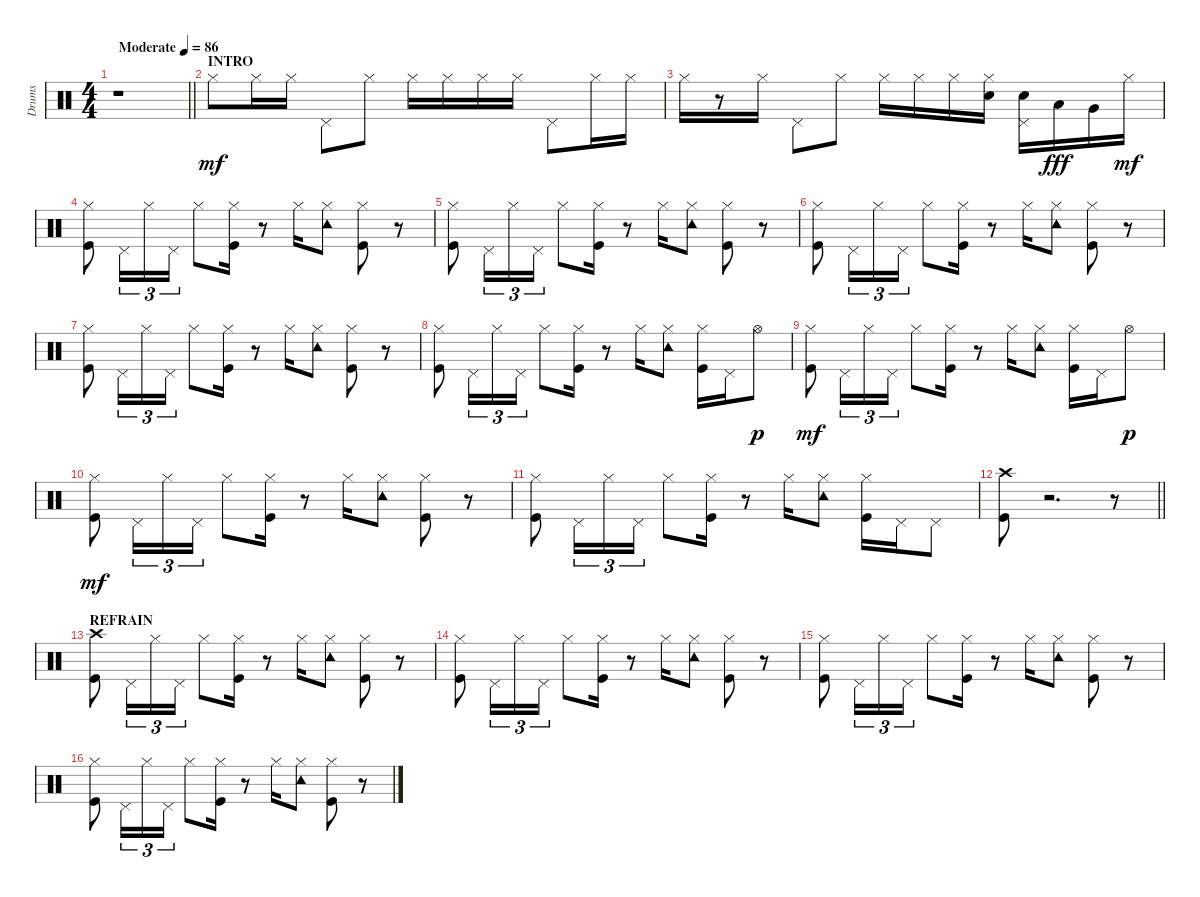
\track ("Drums" "Drums") {instrument percussion}
\staff {score}
\articulation defaults
\ts (4 4)
\tempo (86 "Moderate")
\clef neutral
\barLineRight lightlight
\ks c
r.1{dy mf} |
\section ("" "INTRO")
"Hi-Hat (closed)".8 "Hi-Hat (closed)".16 "Hi-Hat (closed)".16 "Pedal Hi-Hat (hit)".8 "Hi-Hat (closed)".8 "Hi-Hat (closed)".16 "Hi-Hat (closed)".16 "Hi-Hat (closed)".16 "Hi-Hat (closed)".16 "Pedal Hi-Hat (hit)".8 "Hi-Hat (closed)".16 "Hi-Hat (closed)".16 |
"Hi-Hat (closed)".16 r.8 "Hi-Hat (closed)".16 "Pedal Hi-Hat (hit)".8 "Hi-Hat (closed)".8 "Hi-Hat (closed)".16 "Hi-Hat (closed)".16 "Hi-Hat (closed)".16 ("Electric Snare (hit)" "Hi-Hat (closed)").16 ("Electric Snare (hit)" "Pedal Hi-Hat (hit)").16 "Low Tom (hit)".16{dy fff} "Very Low Tom (hit)".16 "Hi-Hat (closed)".16{dy mf} |
("Kick (hit)" "Hi-Hat (closed)").8 "Pedal Hi-Hat (hit)".16{tu (3 2)} "Hi-Hat (closed)".16{tu (3 2)} "Pedal Hi-Hat (hit)".16{tu (3 2)} "Hi-Hat (closed)".8 ("Kick (hit)" "Hi-Hat (closed)").16 r.8 "Hi-Hat (closed)".16 ("Hi-Hat (closed)" "Tambourine (hit)").8 ("Kick (hit)" "Hi-Hat (closed)").8 r.8 |
("Kick (hit)" "Hi-Hat (closed)").8 "Pedal Hi-Hat (hit)".16{tu (3 2)} "Hi-Hat (closed)".16{tu (3 2)} "Pedal Hi-Hat (hit)".16{tu (3 2)} "Hi-Hat (closed)".8 ("Kick (hit)" "Hi-Hat (closed)").16 r.8 "Hi-Hat (closed)".16 ("Hi-Hat (closed)" "Tambourine (hit)").8 ("Kick (hit)" "Hi-Hat (closed)").8 r.8 |
("Kick (hit)" "Hi-Hat (closed)").8 "Pedal Hi-Hat (hit)".16{tu (3 2)} "Hi-Hat (closed)".16{tu (3 2)} "Pedal Hi-Hat (hit)".16{tu (3 2)} "Hi-Hat (closed)".8 ("Kick (hit)" "Hi-Hat (closed)").16 r.8 "Hi-Hat (closed)".16 ("Hi-Hat (closed)" "Tambourine (hit)").8 ("Kick (hit)" "Hi-Hat (closed)").8 r.8 |
("Kick (hit)" "Hi-Hat (closed)").8 "Pedal Hi-Hat (hit)".16{tu (3 2)} "Hi-Hat (closed)".16{tu (3 2)} "Pedal Hi-Hat (hit)".16{tu (3 2)} "Hi-Hat (closed)".8 ("Kick (hit)" "Hi-Hat (closed)").16 r.8 "Hi-Hat (closed)".16 ("Hi-Hat (closed)" "Tambourine (hit)").8 ("Kick (hit)" "Hi-Hat (closed)").8 r.8 |
("Kick (hit)" "Hi-Hat (closed)").8 "Pedal Hi-Hat (hit)".16{tu (3 2)} "Hi-Hat (closed)".16{tu (3 2)} "Pedal Hi-Hat (hit)".16{tu (3 2)} "Hi-Hat (closed)".8 ("Kick (hit)" "Hi-Hat (closed)").16 r.8 "Hi-Hat (closed)".16 ("Hi-Hat (closed)" "Tambourine (hit)").8 ("Kick (hit)" "Hi-Hat (closed)").16 "Pedal Hi-Hat (hit)".16 "Hi-Hat (open)".8{dy p} |
("Kick (hit)" "Hi-Hat (closed)").8{dy mf} "Pedal Hi-Hat (hit)".16{tu (3 2)} "Hi-Hat (closed)".16{tu (3 2)} "Pedal Hi-Hat (hit)".16{tu (3 2)} "Hi-Hat (closed)".8 ("Kick (hit)" "Hi-Hat (closed)").16 r.8 "Hi-Hat (closed)".16 ("Hi-Hat (closed)" "Tambourine (hit)").8 ("Kick (hit)" "Hi-Hat (closed)").16 "Pedal Hi-Hat (hit)".16 "Hi-Hat (open)".8{dy p} |
("Kick (hit)" "Hi-Hat (closed)").8{dy mf} "Pedal Hi-Hat (hit)".16{tu (3 2)} "Hi-Hat (closed)".16{tu (3 2)} "Pedal Hi-Hat (hit)".16{tu (3 2)} "Hi-Hat (closed)".8 ("Kick (hit)" "Hi-Hat (closed)").16 r.8 "Hi-Hat (closed)".16 ("Hi-Hat (closed)" "Tambourine (hit)").8 ("Kick (hit)" "Hi-Hat (closed)").8 r.8 |
("Kick (hit)" "Hi-Hat (closed)").8 "Pedal Hi-Hat (hit)".16{tu (3 2)} "Hi-Hat (closed)".16{tu (3 2)} "Pedal Hi-Hat (hit)".16{tu (3 2)} "Hi-Hat (closed)".8 ("Kick (hit)" "Hi-Hat (closed)").16 r.8 "Hi-Hat (closed)".16 ("Hi-Hat (closed)" "Tambourine (hit)").8 ("Kick (hit)" "Hi-Hat (closed)").16 "Pedal Hi-Hat (hit)".16 "Pedal Hi-Hat (hit)".8 |
\barLineRight lightlight
("Kick (hit)" "Crash high (hit)").8 r.2{d} r.8 |
\section ("" "REFRAIN")
("Kick (hit)" "Crash high (hit)").8 "Pedal Hi-Hat (hit)".16{tu (3 2)} "Hi-Hat (closed)".16{tu (3 2)} "Pedal Hi-Hat (hit)".16{tu (3 2)} "Hi-Hat (closed)".8 ("Kick (hit)" "Hi-Hat (closed)").16 r.8 "Hi-Hat (closed)".16 ("Hi-Hat (closed)" "Tambourine (hit)").8 ("Kick (hit)" "Hi-Hat (closed)").8 r.8 |
("Kick (hit)" "Hi-Hat (closed)").8 "Pedal Hi-Hat (hit)".16{tu (3 2)} "Hi-Hat (closed)".16{tu (3 2)} "Pedal Hi-Hat (hit)".16{tu (3 2)} "Hi-Hat (closed)".8 ("Kick (hit)" "Hi-Hat (closed)").16 r.8 "Hi-Hat (closed)".16 ("Hi-Hat (closed)" "Tambourine (hit)").8 ("Kick (hit)" "Hi-Hat (closed)").8 r.8 |
("Kick (hit)" "Hi-Hat (closed)").8 "Pedal Hi-Hat (hit)".16{tu (3 2)} "Hi-Hat (closed)".16{tu (3 2)} "Pedal Hi-Hat (hit)".16{tu (3 2)} "Hi-Hat (closed)".8 ("Kick (hit)" "Hi-Hat (closed)").16 r.8 "Hi-Hat (closed)".16 ("Hi-Hat (closed)" "Tambourine (hit)").8 ("Kick (hit)" "Hi-Hat (closed)").8 r.8 |
("Kick (hit)" "Hi-Hat (closed)").8 "Pedal Hi-Hat (hit)".16{tu (3 2)} "Hi-Hat (closed)".16{tu (3 2)} "Pedal Hi-Hat (hit)".16{tu (3 2)} "Hi-Hat (closed)".8 ("Kick (hit)" "Hi-Hat (closed)").16 r.8 "Hi-Hat (closed)".16 ("Hi-Hat (closed)" "Tambourine (hit)").8 ("Kick (hit)" "Hi-Hat (closed)").8 r.8
